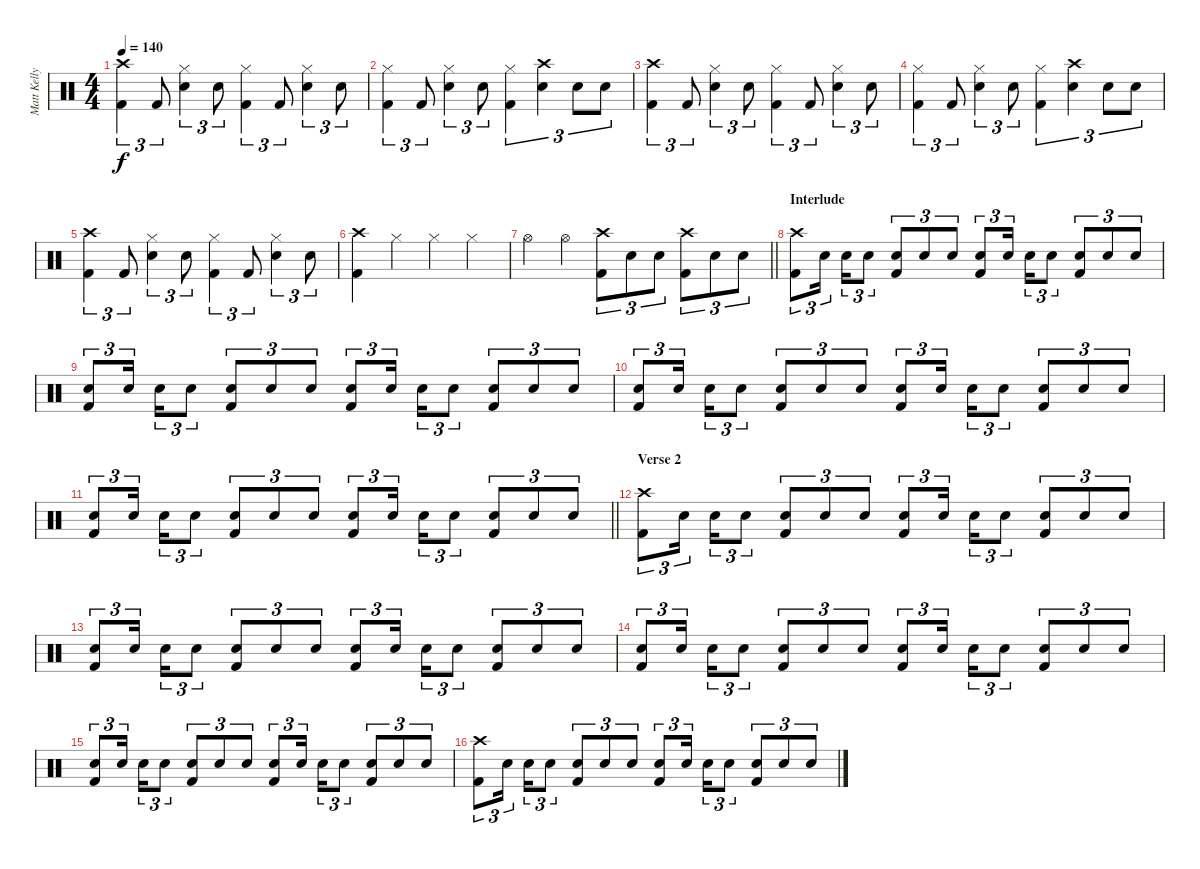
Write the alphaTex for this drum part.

\track ("Matt Kelly (Drums)" "Matt Kelly") {instrument percussion}
\staff {score}
\articulation defaults
\ts (4 4)
\tempo 140
\clef neutral
\ks c
("Crash high (hit)" "Kick (hit) 2").4{tu (3 2) dy f} "Kick (hit) 2".8{tu (3 2)} ("Hi-Hat (closed)" "Electric Snare (hit)").4{tu (3 2)} "Electric Snare (hit)".8{tu (3 2)} ("Hi-Hat (closed)" "Kick (hit) 2").4{tu (3 2)} "Kick (hit) 2".8{tu (3 2)} ("Hi-Hat (closed)" "Electric Snare (hit)").4{tu (3 2)} "Electric Snare (hit)".8{tu (3 2)} |
("Hi-Hat (closed)" "Kick (hit) 2").4{tu (3 2)} "Kick (hit) 2".8{tu (3 2)} ("Hi-Hat (closed)" "Electric Snare (hit)").4{tu (3 2)} "Electric Snare (hit)".8{tu (3 2)} ("Hi-Hat (closed)" "Kick (hit) 2").4{tu (3 2)} ("Crash high (hit)" "Electric Snare (hit)").4{tu (3 2)} "Electric Snare (hit)".8{tu (3 2)} "Electric Snare (hit)".8{tu (3 2)} |
("Crash high (hit)" "Kick (hit) 2").4{tu (3 2)} "Kick (hit) 2".8{tu (3 2)} ("Hi-Hat (closed)" "Electric Snare (hit)").4{tu (3 2)} "Electric Snare (hit)".8{tu (3 2)} ("Hi-Hat (closed)" "Kick (hit) 2").4{tu (3 2)} "Kick (hit) 2".8{tu (3 2)} ("Hi-Hat (closed)" "Electric Snare (hit)").4{tu (3 2)} "Electric Snare (hit)".8{tu (3 2)} |
("Hi-Hat (closed)" "Kick (hit) 2").4{tu (3 2)} "Kick (hit) 2".8{tu (3 2)} ("Hi-Hat (closed)" "Electric Snare (hit)").4{tu (3 2)} "Electric Snare (hit)".8{tu (3 2)} ("Hi-Hat (closed)" "Kick (hit) 2").4{tu (3 2)} ("Crash high (hit)" "Electric Snare (hit)").4{tu (3 2)} "Electric Snare (hit)".8{tu (3 2)} "Electric Snare (hit)".8{tu (3 2)} |
("Crash high (hit)" "Kick (hit) 2").4{tu (3 2)} "Kick (hit) 2".8{tu (3 2)} ("Hi-Hat (closed)" "Electric Snare (hit)").4{tu (3 2)} "Electric Snare (hit)".8{tu (3 2)} ("Hi-Hat (closed)" "Kick (hit) 2").4{tu (3 2)} "Kick (hit) 2".8{tu (3 2)} ("Hi-Hat (closed)" "Electric Snare (hit)").4{tu (3 2)} "Electric Snare (hit)".8{tu (3 2)} |
("Crash high (hit)" "Kick (hit) 2").4 "Hi-Hat (closed)".4 "Hi-Hat (closed)".4 "Hi-Hat (closed)".4 |
\barLineRight lightlight "Hi-Hat (open)".4 "Hi-Hat (open)".4
("Crash high (hit)" "Kick (hit) 2").8{tu (3 2)} "Electric Snare (hit)".8{tu (3 2)} "Electric Snare (hit)".8{tu (3 2)} ("Crash high (hit)" "Kick (hit) 2").8{tu (3 2)} "Electric Snare (hit)".8{tu (3 2)} "Electric Snare (hit)".8{tu (3 2)} |
\section ("" "Interlude")
("Crash high (hit)" "Kick (hit) 2").8{tu (3 2)} "Electric Snare (hit)".16{tu (3 2) beam splitsecondary} "Electric Snare (hit)".16{tu (3 2)} "Electric Snare (hit)".8{tu (3 2)} ("Electric Snare (hit)" "Kick (hit) 2").8{tu (3 2)} "Electric Snare (hit)".8{tu (3 2)} "Electric Snare (hit)".8{tu (3 2)} ("Electric Snare (hit)" "Kick (hit) 2").8{tu (3 2)} "Electric Snare (hit)".16{tu (3 2) beam splitsecondary} "Electric Snare (hit)".16{tu (3 2)} "Electric Snare (hit)".8{tu (3 2)} ("Electric Snare (hit)" "Kick (hit) 2").8{tu (3 2)} "Electric Snare (hit)".8{tu (3 2)} "Electric Snare (hit)".8{tu (3 2)} |
("Electric Snare (hit)" "Kick (hit) 2").8{tu (3 2)} "Electric Snare (hit)".16{tu (3 2) beam splitsecondary} "Electric Snare (hit)".16{tu (3 2)} "Electric Snare (hit)".8{tu (3 2)} ("Electric Snare (hit)" "Kick (hit) 2").8{tu (3 2)} "Electric Snare (hit)".8{tu (3 2)} "Electric Snare (hit)".8{tu (3 2)} ("Electric Snare (hit)" "Kick (hit) 2").8{tu (3 2)} "Electric Snare (hit)".16{tu (3 2) beam splitsecondary} "Electric Snare (hit)".16{tu (3 2)} "Electric Snare (hit)".8{tu (3 2)} ("Electric Snare (hit)" "Kick (hit) 2").8{tu (3 2)} "Electric Snare (hit)".8{tu (3 2)} "Electric Snare (hit)".8{tu (3 2)} |
("Electric Snare (hit)" "Kick (hit) 2").8{tu (3 2)} "Electric Snare (hit)".16{tu (3 2) beam splitsecondary} "Electric Snare (hit)".16{tu (3 2)} "Electric Snare (hit)".8{tu (3 2)} ("Electric Snare (hit)" "Kick (hit) 2").8{tu (3 2)} "Electric Snare (hit)".8{tu (3 2)} "Electric Snare (hit)".8{tu (3 2)} ("Electric Snare (hit)" "Kick (hit) 2").8{tu (3 2)} "Electric Snare (hit)".16{tu (3 2) beam splitsecondary} "Electric Snare (hit)".16{tu (3 2)} "Electric Snare (hit)".8{tu (3 2)} ("Electric Snare (hit)" "Kick (hit) 2").8{tu (3 2)} "Electric Snare (hit)".8{tu (3 2)} "Electric Snare (hit)".8{tu (3 2)} |
\barLineRight lightlight
("Electric Snare (hit)" "Kick (hit) 2").8{tu (3 2)} "Electric Snare (hit)".16{tu (3 2) beam splitsecondary} "Electric Snare (hit)".16{tu (3 2)} "Electric Snare (hit)".8{tu (3 2)} ("Electric Snare (hit)" "Kick (hit) 2").8{tu (3 2)} "Electric Snare (hit)".8{tu (3 2)} "Electric Snare (hit)".8{tu (3 2)} ("Electric Snare (hit)" "Kick (hit) 2").8{tu (3 2)} "Electric Snare (hit)".16{tu (3 2) beam splitsecondary} "Electric Snare (hit)".16{tu (3 2)} "Electric Snare (hit)".8{tu (3 2)} ("Electric Snare (hit)" "Kick (hit) 2").8{tu (3 2)} "Electric Snare (hit)".8{tu (3 2)} "Electric Snare (hit)".8{tu (3 2)} |
\section ("" "Verse 2")
("Crash high (hit)" "Kick (hit) 2").8{tu (3 2)} "Electric Snare (hit)".16{tu (3 2) beam splitsecondary} "Electric Snare (hit)".16{tu (3 2)} "Electric Snare (hit)".8{tu (3 2)} ("Electric Snare (hit)" "Kick (hit) 2").8{tu (3 2)} "Electric Snare (hit)".8{tu (3 2)} "Electric Snare (hit)".8{tu (3 2)} ("Electric Snare (hit)" "Kick (hit) 2").8{tu (3 2)} "Electric Snare (hit)".16{tu (3 2) beam splitsecondary} "Electric Snare (hit)".16{tu (3 2)} "Electric Snare (hit)".8{tu (3 2)} ("Electric Snare (hit)" "Kick (hit) 2").8{tu (3 2)} "Electric Snare (hit)".8{tu (3 2)} "Electric Snare (hit)".8{tu (3 2)} |
("Electric Snare (hit)" "Kick (hit) 2").8{tu (3 2)} "Electric Snare (hit)".16{tu (3 2) beam splitsecondary} "Electric Snare (hit)".16{tu (3 2)} "Electric Snare (hit)".8{tu (3 2)} ("Electric Snare (hit)" "Kick (hit) 2").8{tu (3 2)} "Electric Snare (hit)".8{tu (3 2)} "Electric Snare (hit)".8{tu (3 2)} ("Electric Snare (hit)" "Kick (hit) 2").8{tu (3 2)} "Electric Snare (hit)".16{tu (3 2) beam splitsecondary} "Electric Snare (hit)".16{tu (3 2)} "Electric Snare (hit)".8{tu (3 2)} ("Electric Snare (hit)" "Kick (hit) 2").8{tu (3 2)} "Electric Snare (hit)".8{tu (3 2)} "Electric Snare (hit)".8{tu (3 2)} |
("Electric Snare (hit)" "Kick (hit) 2").8{tu (3 2)} "Electric Snare (hit)".16{tu (3 2) beam splitsecondary} "Electric Snare (hit)".16{tu (3 2)} "Electric Snare (hit)".8{tu (3 2)} ("Electric Snare (hit)" "Kick (hit) 2").8{tu (3 2)} "Electric Snare (hit)".8{tu (3 2)} "Electric Snare (hit)".8{tu (3 2)} ("Electric Snare (hit)" "Kick (hit) 2").8{tu (3 2)} "Electric Snare (hit)".16{tu (3 2) beam splitsecondary} "Electric Snare (hit)".16{tu (3 2)} "Electric Snare (hit)".8{tu (3 2)} ("Electric Snare (hit)" "Kick (hit) 2").8{tu (3 2)} "Electric Snare (hit)".8{tu (3 2)} "Electric Snare (hit)".8{tu (3 2)} |
("Electric Snare (hit)" "Kick (hit) 2").8{tu (3 2)} "Electric Snare (hit)".16{tu (3 2) beam splitsecondary} "Electric Snare (hit)".16{tu (3 2)} "Electric Snare (hit)".8{tu (3 2)} ("Electric Snare (hit)" "Kick (hit) 2").8{tu (3 2)} "Electric Snare (hit)".8{tu (3 2)} "Electric Snare (hit)".8{tu (3 2)} ("Electric Snare (hit)" "Kick (hit) 2").8{tu (3 2)} "Electric Snare (hit)".16{tu (3 2) beam splitsecondary} "Electric Snare (hit)".16{tu (3 2)} "Electric Snare (hit)".8{tu (3 2)} ("Electric Snare (hit)" "Kick (hit) 2").8{tu (3 2)} "Electric Snare (hit)".8{tu (3 2)} "Electric Snare (hit)".8{tu (3 2)} |
("Crash high (hit)" "Kick (hit) 2").8{tu (3 2)} "Electric Snare (hit)".16{tu (3 2) beam splitsecondary} "Electric Snare (hit)".16{tu (3 2)} "Electric Snare (hit)".8{tu (3 2)} ("Electric Snare (hit)" "Kick (hit) 2").8{tu (3 2)} "Electric Snare (hit)".8{tu (3 2)} "Electric Snare (hit)".8{tu (3 2)} ("Electric Snare (hit)" "Kick (hit) 2").8{tu (3 2)} "Electric Snare (hit)".16{tu (3 2) beam splitsecondary} "Electric Snare (hit)".16{tu (3 2)} "Electric Snare (hit)".8{tu (3 2)} ("Electric Snare (hit)" "Kick (hit) 2").8{tu (3 2)} "Electric Snare (hit)".8{tu (3 2)} "Electric Snare (hit)".8{tu (3 2)}
